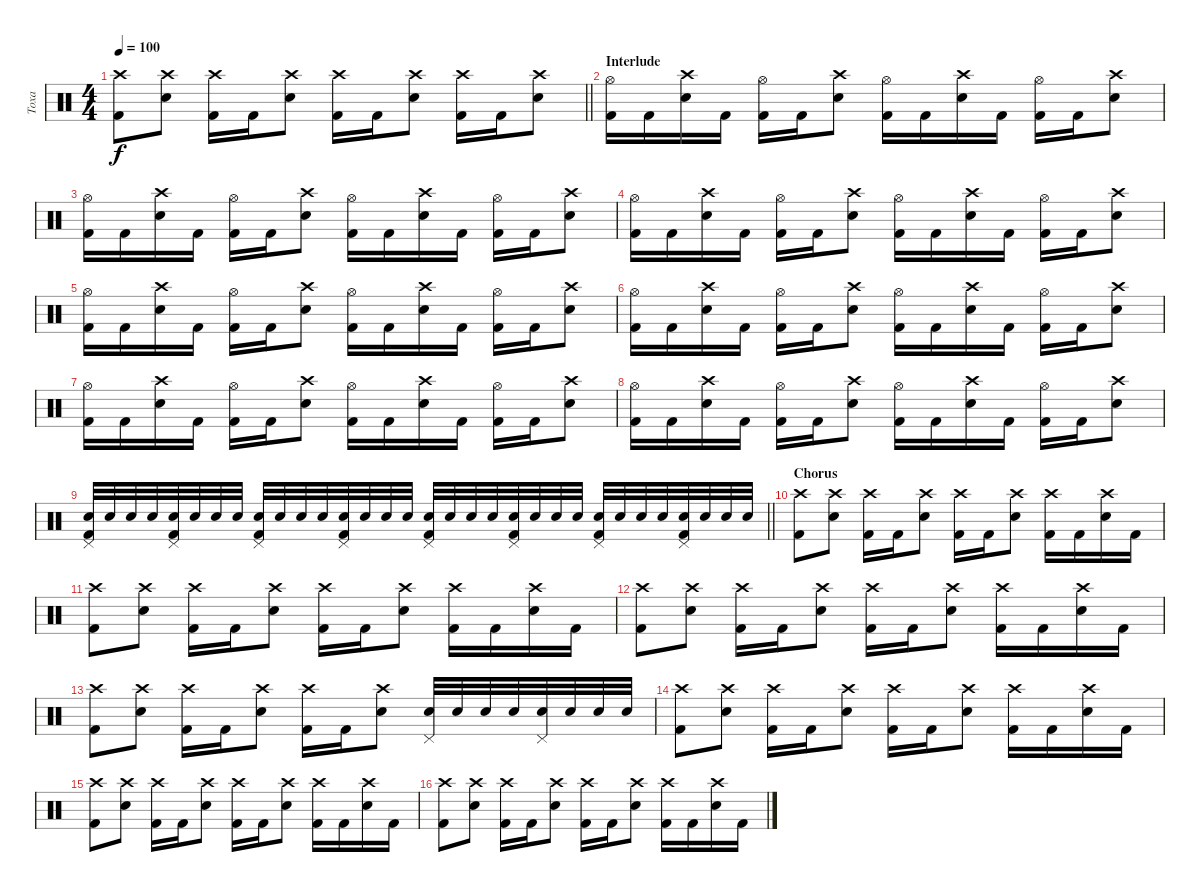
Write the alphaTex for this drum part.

\track ("Toxa" "Toxa") {instrument percussion}
\staff {score}
\articulation defaults
\ts (4 4)
\tempo 100
\clef neutral
\barLineRight lightlight
\ks c
("Kick (hit) 2" "Crash high (hit)").8{dy f} ("Snare (hit) 2" "Crash high (hit)").8 ("Kick (hit) 2" "Crash high (hit)").16 "Kick (hit) 2".16 ("Snare (hit) 2" "Crash high (hit)").8 ("Kick (hit) 2" "Crash high (hit)").16 "Kick (hit) 2".16 ("Snare (hit) 2" "Crash high (hit)").8 ("Kick (hit) 2" "Crash high (hit)").16 "Kick (hit) 2".16 ("Snare (hit) 2" "Crash high (hit)").8 |
\section ("" "Interlude")
("Hi-Hat (open)" "Kick (hit) 2").16 "Kick (hit) 2".16 ("Snare (hit) 2" "Crash high (hit)").16 "Kick (hit) 2".16 ("Kick (hit) 2" "Hi-Hat (open)").16 "Kick (hit) 2".16 ("Snare (hit) 2" "Crash high (hit)").8 ("Hi-Hat (open)" "Kick (hit) 2").16 "Kick (hit) 2".16 ("Snare (hit) 2" "Crash high (hit)").16 "Kick (hit) 2".16 ("Kick (hit) 2" "Hi-Hat (open)").16 "Kick (hit) 2".16 ("Snare (hit) 2" "Crash high (hit)").8 |
("Hi-Hat (open)" "Kick (hit) 2").16 "Kick (hit) 2".16 ("Snare (hit) 2" "Crash high (hit)").16 "Kick (hit) 2".16 ("Kick (hit) 2" "Hi-Hat (open)").16 "Kick (hit) 2".16 ("Snare (hit) 2" "Crash high (hit)").8 ("Hi-Hat (open)" "Kick (hit) 2").16 "Kick (hit) 2".16 ("Snare (hit) 2" "Crash high (hit)").16 "Kick (hit) 2".16 ("Kick (hit) 2" "Hi-Hat (open)").16 "Kick (hit) 2".16 ("Snare (hit) 2" "Crash high (hit)").8 |
("Hi-Hat (open)" "Kick (hit) 2").16 "Kick (hit) 2".16 ("Snare (hit) 2" "Crash high (hit)").16 "Kick (hit) 2".16 ("Kick (hit) 2" "Hi-Hat (open)").16 "Kick (hit) 2".16 ("Snare (hit) 2" "Crash high (hit)").8 ("Hi-Hat (open)" "Kick (hit) 2").16 "Kick (hit) 2".16 ("Snare (hit) 2" "Crash high (hit)").16 "Kick (hit) 2".16 ("Kick (hit) 2" "Hi-Hat (open)").16 "Kick (hit) 2".16 ("Snare (hit) 2" "Crash high (hit)").8 |
("Hi-Hat (open)" "Kick (hit) 2").16 "Kick (hit) 2".16 ("Snare (hit) 2" "Crash high (hit)").16 "Kick (hit) 2".16 ("Kick (hit) 2" "Hi-Hat (open)").16 "Kick (hit) 2".16 ("Snare (hit) 2" "Crash high (hit)").8 ("Hi-Hat (open)" "Kick (hit) 2").16 "Kick (hit) 2".16 ("Snare (hit) 2" "Crash high (hit)").16 "Kick (hit) 2".16 ("Kick (hit) 2" "Hi-Hat (open)").16 "Kick (hit) 2".16 ("Snare (hit) 2" "Crash high (hit)").8 |
("Hi-Hat (open)" "Kick (hit) 2").16 "Kick (hit) 2".16 ("Snare (hit) 2" "Crash high (hit)").16 "Kick (hit) 2".16 ("Kick (hit) 2" "Hi-Hat (open)").16 "Kick (hit) 2".16 ("Snare (hit) 2" "Crash high (hit)").8 ("Hi-Hat (open)" "Kick (hit) 2").16 "Kick (hit) 2".16 ("Snare (hit) 2" "Crash high (hit)").16 "Kick (hit) 2".16 ("Kick (hit) 2" "Hi-Hat (open)").16 "Kick (hit) 2".16 ("Snare (hit) 2" "Crash high (hit)").8 |
("Hi-Hat (open)" "Kick (hit) 2").16 "Kick (hit) 2".16 ("Snare (hit) 2" "Crash high (hit)").16 "Kick (hit) 2".16 ("Kick (hit) 2" "Hi-Hat (open)").16 "Kick (hit) 2".16 ("Snare (hit) 2" "Crash high (hit)").8 ("Hi-Hat (open)" "Kick (hit) 2").16 "Kick (hit) 2".16 ("Snare (hit) 2" "Crash high (hit)").16 "Kick (hit) 2".16 ("Kick (hit) 2" "Hi-Hat (open)").16 "Kick (hit) 2".16 ("Snare (hit) 2" "Crash high (hit)").8 |
("Hi-Hat (open)" "Kick (hit) 2").16 "Kick (hit) 2".16 ("Snare (hit) 2" "Crash high (hit)").16 "Kick (hit) 2".16 ("Kick (hit) 2" "Hi-Hat (open)").16 "Kick (hit) 2".16 ("Snare (hit) 2" "Crash high (hit)").8 ("Hi-Hat (open)" "Kick (hit) 2").16 "Kick (hit) 2".16 ("Snare (hit) 2" "Crash high (hit)").16 "Kick (hit) 2".16 ("Kick (hit) 2" "Hi-Hat (open)").16 "Kick (hit) 2".16 ("Snare (hit) 2" "Crash high (hit)").8 |
\barLineRight lightlight
("Snare (hit) 2" "Kick (hit) 2" "Pedal Hi-Hat (hit)").32 "Snare (hit) 2".32 "Snare (hit) 2".32 "Snare (hit) 2".32 ("Snare (hit) 2" "Kick (hit) 2" "Pedal Hi-Hat (hit)").32 "Snare (hit) 2".32 "Snare (hit) 2".32 "Snare (hit) 2".32 ("Snare (hit) 2" "Kick (hit) 2" "Pedal Hi-Hat (hit)").32 "Snare (hit) 2".32 "Snare (hit) 2".32 "Snare (hit) 2".32 ("Snare (hit) 2" "Kick (hit) 2" "Pedal Hi-Hat (hit)").32 "Snare (hit) 2".32 "Snare (hit) 2".32 "Snare (hit) 2".32 ("Snare (hit) 2" "Kick (hit) 2" "Pedal Hi-Hat (hit)").32 "Snare (hit) 2".32 "Snare (hit) 2".32 "Snare (hit) 2".32 ("Snare (hit) 2" "Kick (hit) 2" "Pedal Hi-Hat (hit)").32 "Snare (hit) 2".32 "Snare (hit) 2".32 "Snare (hit) 2".32 ("Snare (hit) 2" "Kick (hit) 2" "Pedal Hi-Hat (hit)").32 "Snare (hit) 2".32 "Snare (hit) 2".32 "Snare (hit) 2".32 ("Snare (hit) 2" "Kick (hit) 2" "Pedal Hi-Hat (hit)").32 "Snare (hit) 2".32 "Snare (hit) 2".32 "Snare (hit) 2".32 |
\section ("" "Chorus")
("Kick (hit) 2" "Crash high (hit)").8 ("Snare (hit) 2" "Crash high (hit)").8 ("Kick (hit) 2" "Crash high (hit)").16 "Kick (hit) 2".16 ("Snare (hit) 2" "Crash high (hit)").8 ("Kick (hit) 2" "Crash high (hit)").16 "Kick (hit) 2".16 ("Snare (hit) 2" "Crash high (hit)").8 ("Kick (hit) 2" "Crash high (hit)").16 "Kick (hit) 2".16 ("Snare (hit) 2" "Crash high (hit)").16 "Kick (hit) 2".16 |
("Kick (hit) 2" "Crash high (hit)").8 ("Snare (hit) 2" "Crash high (hit)").8 ("Kick (hit) 2" "Crash high (hit)").16 "Kick (hit) 2".16 ("Snare (hit) 2" "Crash high (hit)").8 ("Kick (hit) 2" "Crash high (hit)").16 "Kick (hit) 2".16 ("Snare (hit) 2" "Crash high (hit)").8 ("Kick (hit) 2" "Crash high (hit)").16 "Kick (hit) 2".16 ("Snare (hit) 2" "Crash high (hit)").16 "Kick (hit) 2".16 |
("Kick (hit) 2" "Crash high (hit)").8 ("Snare (hit) 2" "Crash high (hit)").8 ("Kick (hit) 2" "Crash high (hit)").16 "Kick (hit) 2".16 ("Snare (hit) 2" "Crash high (hit)").8 ("Kick (hit) 2" "Crash high (hit)").16 "Kick (hit) 2".16 ("Snare (hit) 2" "Crash high (hit)").8 ("Kick (hit) 2" "Crash high (hit)").16 "Kick (hit) 2".16 ("Snare (hit) 2" "Crash high (hit)").16 "Kick (hit) 2".16 |
("Kick (hit) 2" "Crash high (hit)").8 ("Snare (hit) 2" "Crash high (hit)").8 ("Kick (hit) 2" "Crash high (hit)").16 "Kick (hit) 2".16 ("Snare (hit) 2" "Crash high (hit)").8 ("Kick (hit) 2" "Crash high (hit)").16 "Kick (hit) 2".16 ("Snare (hit) 2" "Crash high (hit)").8 ("Pedal Hi-Hat (hit)" "Snare (hit) 2").32 "Snare (hit) 2".32 "Snare (hit) 2".32 "Snare (hit) 2".32 ("Pedal Hi-Hat (hit)" "Snare (hit) 2").32 "Snare (hit) 2".32 "Snare (hit) 2".32 "Snare (hit) 2".32 |
("Kick (hit) 2" "Crash high (hit)").8 ("Snare (hit) 2" "Crash high (hit)").8 ("Kick (hit) 2" "Crash high (hit)").16 "Kick (hit) 2".16 ("Snare (hit) 2" "Crash high (hit)").8 ("Kick (hit) 2" "Crash high (hit)").16 "Kick (hit) 2".16 ("Snare (hit) 2" "Crash high (hit)").8 ("Kick (hit) 2" "Crash high (hit)").16 "Kick (hit) 2".16 ("Snare (hit) 2" "Crash high (hit)").16 "Kick (hit) 2".16 |
("Kick (hit) 2" "Crash high (hit)").8 ("Snare (hit) 2" "Crash high (hit)").8 ("Kick (hit) 2" "Crash high (hit)").16 "Kick (hit) 2".16 ("Snare (hit) 2" "Crash high (hit)").8 ("Kick (hit) 2" "Crash high (hit)").16 "Kick (hit) 2".16 ("Snare (hit) 2" "Crash high (hit)").8 ("Kick (hit) 2" "Crash high (hit)").16 "Kick (hit) 2".16 ("Snare (hit) 2" "Crash high (hit)").16 "Kick (hit) 2".16 |
("Kick (hit) 2" "Crash high (hit)").8 ("Snare (hit) 2" "Crash high (hit)").8 ("Kick (hit) 2" "Crash high (hit)").16 "Kick (hit) 2".16 ("Snare (hit) 2" "Crash high (hit)").8 ("Kick (hit) 2" "Crash high (hit)").16 "Kick (hit) 2".16 ("Snare (hit) 2" "Crash high (hit)").8 ("Kick (hit) 2" "Crash high (hit)").16 "Kick (hit) 2".16 ("Snare (hit) 2" "Crash high (hit)").16 "Kick (hit) 2".16
